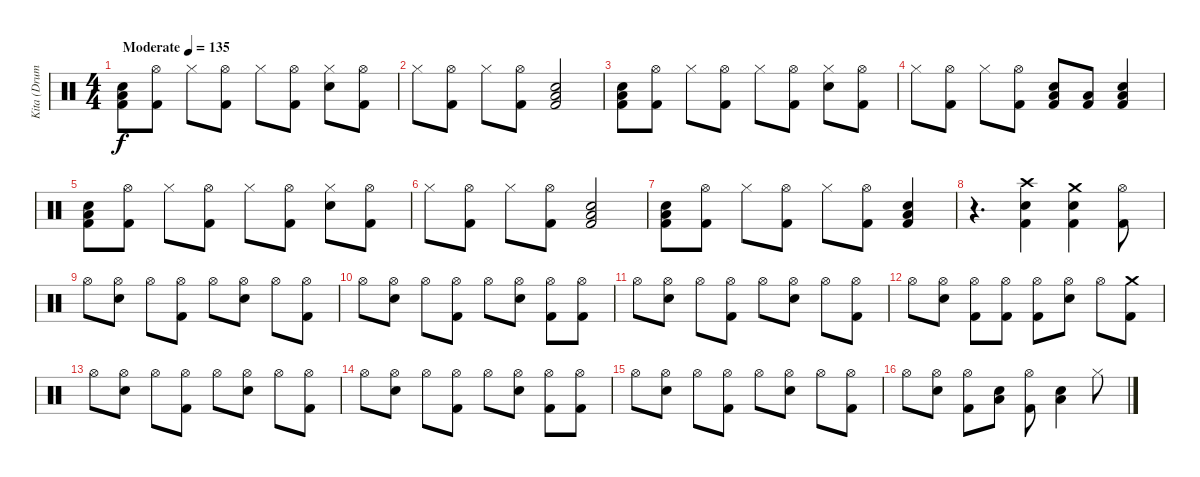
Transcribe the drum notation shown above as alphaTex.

\track ("Kita (Drums)" "Kita (Drum") {instrument percussion}
\staff {score}
\articulation defaults
\ts (4 4)
\tempo (135 "Moderate")
\clef neutral
\ks c
("Low Floor Tom (hit)" "Electric Snare (hit)" "Kick (hit) 2").8{dy f} ("Hi-Hat (open)" "Kick (hit) 2").8 "Hi-Hat (closed)".8 ("Hi-Hat (open)" "Kick (hit) 2").8 "Hi-Hat (closed)".8 ("Hi-Hat (open)" "Kick (hit) 2").8 ("Hi-Hat (closed)" "Electric Snare (hit)").8 ("Hi-Hat (open)" "Kick (hit) 2").8 |
"Hi-Hat (closed)".8 ("Hi-Hat (open)" "Kick (hit) 2").8 "Hi-Hat (closed)".8 ("Hi-Hat (open)" "Kick (hit) 2").8 ("Low Floor Tom (hit)" "Electric Snare (hit)" "Kick (hit) 2").2 |
("Low Floor Tom (hit)" "Electric Snare (hit)" "Kick (hit) 2").8 ("Hi-Hat (open)" "Kick (hit) 2").8 "Hi-Hat (closed)".8 ("Hi-Hat (open)" "Kick (hit) 2").8 "Hi-Hat (closed)".8 ("Hi-Hat (open)" "Kick (hit) 2").8 ("Hi-Hat (closed)" "Electric Snare (hit)").8 ("Hi-Hat (open)" "Kick (hit) 2").8 |
"Hi-Hat (closed)".8 ("Hi-Hat (open)" "Kick (hit) 2").8 "Hi-Hat (closed)".8 ("Hi-Hat (open)" "Kick (hit) 2").8 ("Low Floor Tom (hit)" "Electric Snare (hit)" "Kick (hit) 2").8 ("Low Floor Tom (hit)" "Kick (hit) 2").8 ("Low Floor Tom (hit)" "Electric Snare (hit)" "Kick (hit) 2").4 |
("Low Floor Tom (hit)" "Electric Snare (hit)" "Kick (hit) 2").8 ("Hi-Hat (open)" "Kick (hit) 2").8 "Hi-Hat (closed)".8 ("Hi-Hat (open)" "Kick (hit) 2").8 "Hi-Hat (closed)".8 ("Hi-Hat (open)" "Kick (hit) 2").8 ("Hi-Hat (closed)" "Electric Snare (hit)").8 ("Hi-Hat (open)" "Kick (hit) 2").8 |
"Hi-Hat (closed)".8 ("Hi-Hat (open)" "Kick (hit) 2").8 "Hi-Hat (closed)".8 ("Hi-Hat (open)" "Kick (hit) 2").8 ("Low Floor Tom (hit)" "Electric Snare (hit)" "Kick (hit) 2").2 |
("Low Floor Tom (hit)" "Electric Snare (hit)" "Kick (hit) 2").8 ("Hi-Hat (open)" "Kick (hit) 2").8 "Hi-Hat (closed)".8 ("Hi-Hat (open)" "Kick (hit) 2").8 "Hi-Hat (closed)".8 ("Hi-Hat (open)" "Kick (hit) 2").8 ("Low Floor Tom (hit)" "Electric Snare (hit)" "Kick (hit) 2").4 |
r.4{d} ("Crash high (hit)" "Electric Snare (hit)" "Kick (hit) 2").4 ("Crash medium (hit)" "Electric Snare (hit)" "Kick (hit) 2").4 ("Hi-Hat (open)" "Kick (hit) 2").8 |
"Hi-Hat (open)".8 ("Hi-Hat (open)" "Electric Snare (hit)").8 "Hi-Hat (open)".8 ("Hi-Hat (open)" "Kick (hit) 2").8 "Hi-Hat (open)".8 ("Hi-Hat (open)" "Electric Snare (hit)").8 "Hi-Hat (open)".8 ("Hi-Hat (open)" "Kick (hit) 2").8 |
"Hi-Hat (open)".8 ("Hi-Hat (open)" "Electric Snare (hit)").8 "Hi-Hat (open)".8 ("Hi-Hat (open)" "Kick (hit) 2").8 "Hi-Hat (open)".8 ("Hi-Hat (open)" "Electric Snare (hit)").8 ("Hi-Hat (open)" "Kick (hit) 2").8 ("Hi-Hat (open)" "Kick (hit) 2").8 |
"Hi-Hat (open)".8 ("Hi-Hat (open)" "Electric Snare (hit)").8 "Hi-Hat (open)".8 ("Hi-Hat (open)" "Kick (hit) 2").8 "Hi-Hat (open)".8 ("Hi-Hat (open)" "Electric Snare (hit)").8 "Hi-Hat (open)".8 ("Hi-Hat (open)" "Kick (hit) 2").8 |
"Hi-Hat (open)".8 ("Hi-Hat (open)" "Electric Snare (hit)").8 ("Hi-Hat (open)" "Kick (hit) 2").8 ("Hi-Hat (open)" "Kick (hit) 2").8 ("Hi-Hat (open)" "Kick (hit) 2").8 ("Hi-Hat (open)" "Electric Snare (hit)").8 "Hi-Hat (open)".8 ("Crash medium (hit)" "Kick (hit) 2").8 |
"Hi-Hat (open)".8 ("Hi-Hat (open)" "Electric Snare (hit)").8 "Hi-Hat (open)".8 ("Hi-Hat (open)" "Kick (hit) 2").8 "Hi-Hat (open)".8 ("Hi-Hat (open)" "Electric Snare (hit)").8 "Hi-Hat (open)".8 ("Hi-Hat (open)" "Kick (hit) 2").8 |
"Hi-Hat (open)".8 ("Hi-Hat (open)" "Electric Snare (hit)").8 "Hi-Hat (open)".8 ("Hi-Hat (open)" "Kick (hit) 2").8 "Hi-Hat (open)".8 ("Hi-Hat (open)" "Electric Snare (hit)").8 ("Hi-Hat (open)" "Kick (hit) 2").8 ("Hi-Hat (open)" "Kick (hit) 2").8 |
"Hi-Hat (open)".8 ("Hi-Hat (open)" "Electric Snare (hit)").8 "Hi-Hat (open)".8 ("Hi-Hat (open)" "Kick (hit) 2").8 "Hi-Hat (open)".8 ("Hi-Hat (open)" "Electric Snare (hit)").8 "Hi-Hat (open)".8 ("Hi-Hat (open)" "Kick (hit) 2").8 |
"Hi-Hat (open)".8 ("Hi-Hat (open)" "Electric Snare (hit)").8 ("Hi-Hat (open)" "Kick (hit) 2").8 ("Low Floor Tom (hit)" "Electric Snare (hit)").8 ("Hi-Hat (open)" "Kick (hit) 2").8 ("Low Floor Tom (hit)" "Electric Snare (hit)").4 "Hi-Hat (closed)".8
